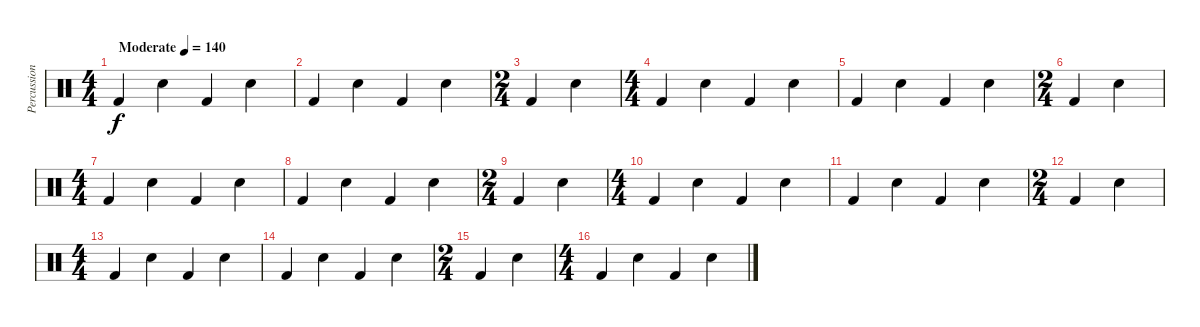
\track ("Percussion" "Percussion") {instrument percussion}
\staff {score}
\articulation defaults
\ts (4 4)
\tempo (140 "Moderate")
\clef neutral
\ks c "Kick (hit) 2".4{dy f} "Snare (hit) 2".4 "Kick (hit) 2".4 "Snare (hit) 2".4
|
"Kick (hit) 2".4 "Snare (hit) 2".4 "Kick (hit) 2".4 "Snare (hit) 2".4 |
\ts (2 4)
"Kick (hit) 2".4 "Snare (hit) 2".4 |
\ts (4 4)
"Kick (hit) 2".4 "Snare (hit) 2".4 "Kick (hit) 2".4 "Snare (hit) 2".4 |
"Kick (hit) 2".4 "Snare (hit) 2".4 "Kick (hit) 2".4 "Snare (hit) 2".4 |
\ts (2 4)
"Kick (hit) 2".4 "Snare (hit) 2".4 |
\ts (4 4)
"Kick (hit) 2".4 "Snare (hit) 2".4 "Kick (hit) 2".4 "Snare (hit) 2".4 |
"Kick (hit) 2".4 "Snare (hit) 2".4 "Kick (hit) 2".4 "Snare (hit) 2".4 |
\ts (2 4)
"Kick (hit) 2".4 "Snare (hit) 2".4 |
\ts (4 4)
"Kick (hit) 2".4 "Snare (hit) 2".4 "Kick (hit) 2".4 "Snare (hit) 2".4 |
"Kick (hit) 2".4 "Snare (hit) 2".4 "Kick (hit) 2".4 "Snare (hit) 2".4 |
\ts (2 4)
"Kick (hit) 2".4 "Snare (hit) 2".4 |
\ts (4 4)
"Kick (hit) 2".4 "Snare (hit) 2".4 "Kick (hit) 2".4 "Snare (hit) 2".4 |
"Kick (hit) 2".4 "Snare (hit) 2".4 "Kick (hit) 2".4 "Snare (hit) 2".4 |
\ts (2 4)
"Kick (hit) 2".4 "Snare (hit) 2".4 |
\ts (4 4)
"Kick (hit) 2".4 "Snare (hit) 2".4 "Kick (hit) 2".4 "Snare (hit) 2".4
